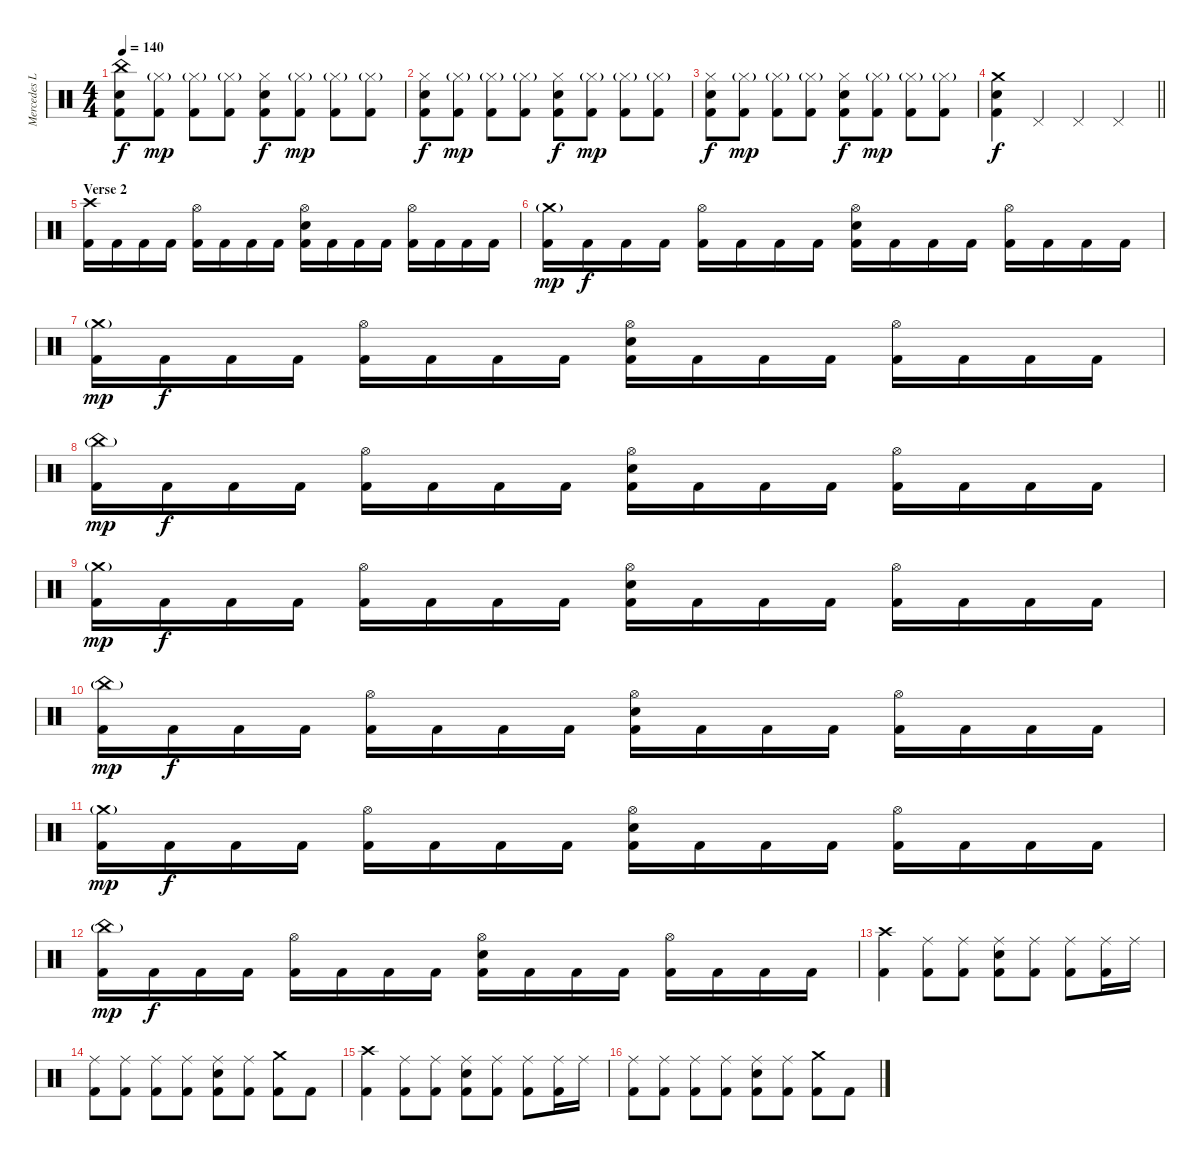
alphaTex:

\track ("Mercedes Lander" "Mercedes L") {instrument percussion}
\staff {score}
\articulation defaults
\ts (4 4)
\tempo 140
\clef neutral
\ks c
("China (hit)" "Snare (hit) 2" "Kick (hit) 2").8{dy f} ("Hi-Hat (closed)"{g} "Kick (hit) 2").8{dy mp} ("Hi-Hat (closed)"{g} "Kick (hit) 2").8 ("Hi-Hat (closed)"{g} "Kick (hit) 2").8 ("Hi-Hat (closed)" "Snare (hit) 2" "Kick (hit) 2").8{dy f} ("Hi-Hat (closed)"{g} "Kick (hit) 2").8{dy mp} ("Hi-Hat (closed)"{g} "Kick (hit) 2").8 ("Hi-Hat (closed)"{g} "Kick (hit) 2").8 |
("Hi-Hat (closed)" "Snare (hit) 2" "Kick (hit) 2").8{dy f} ("Hi-Hat (closed)"{g} "Kick (hit) 2").8{dy mp} ("Hi-Hat (closed)"{g} "Kick (hit) 2").8 ("Hi-Hat (closed)"{g} "Kick (hit) 2").8 ("Hi-Hat (closed)" "Snare (hit) 2" "Kick (hit) 2").8{dy f} ("Hi-Hat (closed)"{g} "Kick (hit) 2").8{dy mp} ("Hi-Hat (closed)"{g} "Kick (hit) 2").8 ("Hi-Hat (closed)"{g} "Kick (hit) 2").8 |
("Hi-Hat (closed)" "Snare (hit) 2" "Kick (hit) 2").8{dy f} ("Hi-Hat (closed)"{g} "Kick (hit) 2").8{dy mp} ("Hi-Hat (closed)"{g} "Kick (hit) 2").8 ("Hi-Hat (closed)"{g} "Kick (hit) 2").8 ("Hi-Hat (closed)" "Snare (hit) 2" "Kick (hit) 2").8{dy f} ("Hi-Hat (closed)"{g} "Kick (hit) 2").8{dy mp} ("Hi-Hat (closed)"{g} "Kick (hit) 2").8 ("Hi-Hat (closed)"{g} "Kick (hit) 2").8 |
\barLineRight lightlight
("Crash medium (hit)" "Snare (hit) 2" "Kick (hit) 2").4{dy f} "Pedal Hi-Hat (hit)".4 "Pedal Hi-Hat (hit)".4 "Pedal Hi-Hat (hit)".4 |
\section ("" "Verse 2")
("Crash high (hit)" "Kick (hit) 2").16 "Kick (hit) 2".16 "Kick (hit) 2".16 "Kick (hit) 2".16 ("Hi-Hat (open)" "Kick (hit) 2").16 "Kick (hit) 2".16 "Kick (hit) 2".16 "Kick (hit) 2".16 ("Hi-Hat (open)" "Snare (hit) 2" "Kick (hit) 2").16 "Kick (hit) 2".16 "Kick (hit) 2".16 "Kick (hit) 2".16 ("Hi-Hat (open)" "Kick (hit) 2").16 "Kick (hit) 2".16 "Kick (hit) 2".16 "Kick (hit) 2".16 |
("Crash medium (hit)"{g} "Kick (hit) 2").16{dy mp} "Kick (hit) 2".16{dy f} "Kick (hit) 2".16 "Kick (hit) 2".16 ("Hi-Hat (open)" "Kick (hit) 2").16 "Kick (hit) 2".16 "Kick (hit) 2".16 "Kick (hit) 2".16 ("Hi-Hat (open)" "Snare (hit) 2" "Kick (hit) 2").16 "Kick (hit) 2".16 "Kick (hit) 2".16 "Kick (hit) 2".16 ("Hi-Hat (open)" "Kick (hit) 2").16 "Kick (hit) 2".16 "Kick (hit) 2".16 "Kick (hit) 2".16 |
("Crash medium (hit)"{g} "Kick (hit) 2").16{dy mp} "Kick (hit) 2".16{dy f} "Kick (hit) 2".16 "Kick (hit) 2".16 ("Hi-Hat (open)" "Kick (hit) 2").16 "Kick (hit) 2".16 "Kick (hit) 2".16 "Kick (hit) 2".16 ("Hi-Hat (open)" "Snare (hit) 2" "Kick (hit) 2").16 "Kick (hit) 2".16 "Kick (hit) 2".16 "Kick (hit) 2".16 ("Hi-Hat (open)" "Kick (hit) 2").16 "Kick (hit) 2".16 "Kick (hit) 2".16 "Kick (hit) 2".16 |
("China (hit)"{g} "Kick (hit) 2").16{dy mp} "Kick (hit) 2".16{dy f} "Kick (hit) 2".16 "Kick (hit) 2".16 ("Hi-Hat (open)" "Kick (hit) 2").16 "Kick (hit) 2".16 "Kick (hit) 2".16 "Kick (hit) 2".16 ("Hi-Hat (open)" "Snare (hit) 2" "Kick (hit) 2").16 "Kick (hit) 2".16 "Kick (hit) 2".16 "Kick (hit) 2".16 ("Hi-Hat (open)" "Kick (hit) 2").16 "Kick (hit) 2".16 "Kick (hit) 2".16 "Kick (hit) 2".16 |
("Crash medium (hit)"{g} "Kick (hit) 2").16{dy mp} "Kick (hit) 2".16{dy f} "Kick (hit) 2".16 "Kick (hit) 2".16 ("Hi-Hat (open)" "Kick (hit) 2").16 "Kick (hit) 2".16 "Kick (hit) 2".16 "Kick (hit) 2".16 ("Hi-Hat (open)" "Snare (hit) 2" "Kick (hit) 2").16 "Kick (hit) 2".16 "Kick (hit) 2".16 "Kick (hit) 2".16 ("Hi-Hat (open)" "Kick (hit) 2").16 "Kick (hit) 2".16 "Kick (hit) 2".16 "Kick (hit) 2".16 |
("China (hit)"{g} "Kick (hit) 2").16{dy mp} "Kick (hit) 2".16{dy f} "Kick (hit) 2".16 "Kick (hit) 2".16 ("Hi-Hat (open)" "Kick (hit) 2").16 "Kick (hit) 2".16 "Kick (hit) 2".16 "Kick (hit) 2".16 ("Hi-Hat (open)" "Snare (hit) 2" "Kick (hit) 2").16 "Kick (hit) 2".16 "Kick (hit) 2".16 "Kick (hit) 2".16 ("Hi-Hat (open)" "Kick (hit) 2").16 "Kick (hit) 2".16 "Kick (hit) 2".16 "Kick (hit) 2".16 |
("Crash medium (hit)"{g} "Kick (hit) 2").16{dy mp} "Kick (hit) 2".16{dy f} "Kick (hit) 2".16 "Kick (hit) 2".16 ("Hi-Hat (open)" "Kick (hit) 2").16 "Kick (hit) 2".16 "Kick (hit) 2".16 "Kick (hit) 2".16 ("Hi-Hat (open)" "Snare (hit) 2" "Kick (hit) 2").16 "Kick (hit) 2".16 "Kick (hit) 2".16 "Kick (hit) 2".16 ("Hi-Hat (open)" "Kick (hit) 2").16 "Kick (hit) 2".16 "Kick (hit) 2".16 "Kick (hit) 2".16 |
("China (hit)"{g} "Kick (hit) 2").16{dy mp} "Kick (hit) 2".16{dy f} "Kick (hit) 2".16 "Kick (hit) 2".16 ("Hi-Hat (open)" "Kick (hit) 2").16 "Kick (hit) 2".16 "Kick (hit) 2".16 "Kick (hit) 2".16 ("Hi-Hat (open)" "Snare (hit) 2" "Kick (hit) 2").16 "Kick (hit) 2".16 "Kick (hit) 2".16 "Kick (hit) 2".16 ("Hi-Hat (open)" "Kick (hit) 2").16 "Kick (hit) 2".16 "Kick (hit) 2".16 "Kick (hit) 2".16 |
("Crash high (hit)" "Kick (hit) 2").4 ("Ride (middle)" "Kick (hit) 2").8 ("Ride (middle)" "Kick (hit) 2").8 ("Ride (middle)" "Snare (hit) 2" "Kick (hit) 2").8 ("Ride (middle)" "Kick (hit) 2").8 ("Ride (middle)" "Kick (hit) 2").8 ("Ride (middle)" "Kick (hit) 2").16 "Ride (middle)".16 |
("Ride (middle)" "Kick (hit) 2").8 ("Ride (middle)" "Kick (hit) 2").8 ("Ride (middle)" "Kick (hit) 2").8 ("Ride (middle)" "Kick (hit) 2").8 ("Ride (middle)" "Snare (hit) 2" "Kick (hit) 2").8 ("Ride (middle)" "Kick (hit) 2").8 ("Crash medium (hit)" "Kick (hit) 2").8 "Kick (hit) 2".8 |
("Crash high (hit)" "Kick (hit) 2").4 ("Ride (middle)" "Kick (hit) 2").8 ("Ride (middle)" "Kick (hit) 2").8 ("Ride (middle)" "Snare (hit) 2" "Kick (hit) 2").8 ("Ride (middle)" "Kick (hit) 2").8 ("Ride (middle)" "Kick (hit) 2").8 ("Ride (middle)" "Kick (hit) 2").16 "Ride (middle)".16 |
("Ride (middle)" "Kick (hit) 2").8 ("Ride (middle)" "Kick (hit) 2").8 ("Ride (middle)" "Kick (hit) 2").8 ("Ride (middle)" "Kick (hit) 2").8 ("Ride (middle)" "Snare (hit) 2" "Kick (hit) 2").8 ("Ride (middle)" "Kick (hit) 2").8 ("Crash medium (hit)" "Kick (hit) 2").8 "Kick (hit) 2".8
